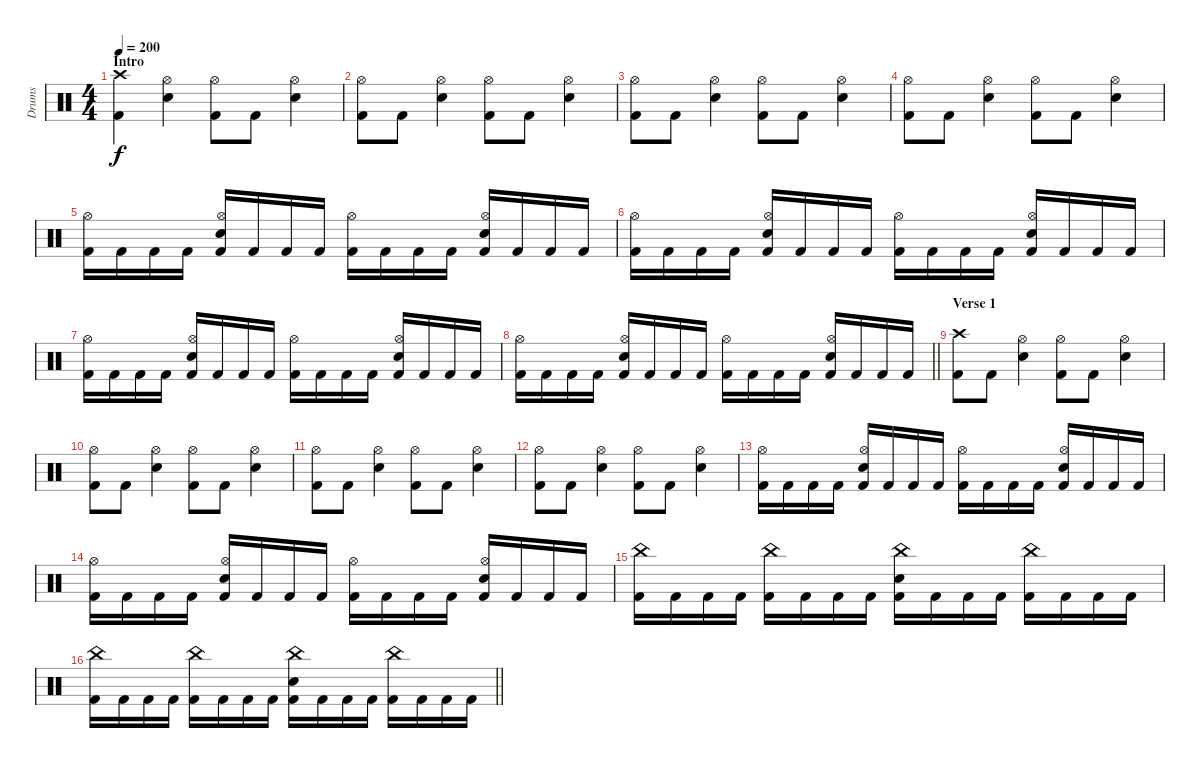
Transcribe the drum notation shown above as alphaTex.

\track ("Drums" "Drums") {instrument percussion}
\staff {score}
\articulation defaults
\ts (4 4)
\section ("" "Intro")
\tempo 200
\clef neutral
\ks c
("Crash high (hit)" "Kick (hit) 2").4{dy f} ("Hi-Hat (open)" "Electric Snare (hit)").4 ("Hi-Hat (open)" "Kick (hit) 2").8 "Kick (hit) 2".8 ("Hi-Hat (open)" "Electric Snare (hit)").4 |
("Hi-Hat (open)" "Kick (hit) 2").8 "Kick (hit) 2".8 ("Hi-Hat (open)" "Electric Snare (hit)").4 ("Hi-Hat (open)" "Kick (hit) 2").8 "Kick (hit) 2".8 ("Hi-Hat (open)" "Electric Snare (hit)").4 |
("Hi-Hat (open)" "Kick (hit) 2").8 "Kick (hit) 2".8 ("Hi-Hat (open)" "Electric Snare (hit)").4 ("Hi-Hat (open)" "Kick (hit) 2").8 "Kick (hit) 2".8 ("Hi-Hat (open)" "Electric Snare (hit)").4 |
("Hi-Hat (open)" "Kick (hit) 2").8 "Kick (hit) 2".8 ("Hi-Hat (open)" "Electric Snare (hit)").4 ("Hi-Hat (open)" "Kick (hit) 2").8 "Kick (hit) 2".8 ("Hi-Hat (open)" "Electric Snare (hit)").4 |
("Hi-Hat (open)" "Kick (hit) 2").16 "Kick (hit) 2".16 "Kick (hit) 2".16 "Kick (hit) 2".16 ("Hi-Hat (open)" "Electric Snare (hit)" "Kick (hit) 2").16 "Kick (hit) 2".16 "Kick (hit) 2".16 "Kick (hit) 2".16 ("Hi-Hat (open)" "Kick (hit) 2").16 "Kick (hit) 2".16 "Kick (hit) 2".16 "Kick (hit) 2".16 ("Hi-Hat (open)" "Electric Snare (hit)" "Kick (hit) 2").16 "Kick (hit) 2".16 "Kick (hit) 2".16 "Kick (hit) 2".16 |
("Hi-Hat (open)" "Kick (hit) 2").16 "Kick (hit) 2".16 "Kick (hit) 2".16 "Kick (hit) 2".16 ("Hi-Hat (open)" "Electric Snare (hit)" "Kick (hit) 2").16 "Kick (hit) 2".16 "Kick (hit) 2".16 "Kick (hit) 2".16 ("Hi-Hat (open)" "Kick (hit) 2").16 "Kick (hit) 2".16 "Kick (hit) 2".16 "Kick (hit) 2".16 ("Hi-Hat (open)" "Electric Snare (hit)" "Kick (hit) 2").16 "Kick (hit) 2".16 "Kick (hit) 2".16 "Kick (hit) 2".16 |
("Hi-Hat (open)" "Kick (hit) 2").16 "Kick (hit) 2".16 "Kick (hit) 2".16 "Kick (hit) 2".16 ("Hi-Hat (open)" "Electric Snare (hit)" "Kick (hit) 2").16 "Kick (hit) 2".16 "Kick (hit) 2".16 "Kick (hit) 2".16 ("Hi-Hat (open)" "Kick (hit) 2").16 "Kick (hit) 2".16 "Kick (hit) 2".16 "Kick (hit) 2".16 ("Hi-Hat (open)" "Electric Snare (hit)" "Kick (hit) 2").16 "Kick (hit) 2".16 "Kick (hit) 2".16 "Kick (hit) 2".16 |
\barLineRight lightlight
("Hi-Hat (open)" "Kick (hit) 2").16 "Kick (hit) 2".16 "Kick (hit) 2".16 "Kick (hit) 2".16 ("Hi-Hat (open)" "Electric Snare (hit)" "Kick (hit) 2").16 "Kick (hit) 2".16 "Kick (hit) 2".16 "Kick (hit) 2".16 ("Hi-Hat (open)" "Kick (hit) 2").16 "Kick (hit) 2".16 "Kick (hit) 2".16 "Kick (hit) 2".16 ("Hi-Hat (open)" "Electric Snare (hit)" "Kick (hit) 2").16 "Kick (hit) 2".16 "Kick (hit) 2".16 "Kick (hit) 2".16 |
\section ("" "Verse 1")
("Crash high (hit)" "Kick (hit) 2").8 "Kick (hit) 2".8 ("Hi-Hat (open)" "Electric Snare (hit)").4 ("Hi-Hat (open)" "Kick (hit) 2").8 "Kick (hit) 2".8 ("Hi-Hat (open)" "Electric Snare (hit)").4 |
("Hi-Hat (open)" "Kick (hit) 2").8 "Kick (hit) 2".8 ("Hi-Hat (open)" "Electric Snare (hit)").4 ("Hi-Hat (open)" "Kick (hit) 2").8 "Kick (hit) 2".8 ("Hi-Hat (open)" "Electric Snare (hit)").4 |
("Hi-Hat (open)" "Kick (hit) 2").8 "Kick (hit) 2".8 ("Hi-Hat (open)" "Electric Snare (hit)").4 ("Hi-Hat (open)" "Kick (hit) 2").8 "Kick (hit) 2".8 ("Hi-Hat (open)" "Electric Snare (hit)").4 |
("Hi-Hat (open)" "Kick (hit) 2").8 "Kick (hit) 2".8 ("Hi-Hat (open)" "Electric Snare (hit)").4 ("Hi-Hat (open)" "Kick (hit) 2").8 "Kick (hit) 2".8 ("Hi-Hat (open)" "Electric Snare (hit)").4 |
("Hi-Hat (open)" "Kick (hit) 2").16 "Kick (hit) 2".16 "Kick (hit) 2".16 "Kick (hit) 2".16 ("Hi-Hat (open)" "Electric Snare (hit)" "Kick (hit) 2").16 "Kick (hit) 2".16 "Kick (hit) 2".16 "Kick (hit) 2".16 ("Hi-Hat (open)" "Kick (hit) 2").16 "Kick (hit) 2".16 "Kick (hit) 2".16 "Kick (hit) 2".16 ("Hi-Hat (open)" "Electric Snare (hit)" "Kick (hit) 2").16 "Kick (hit) 2".16 "Kick (hit) 2".16 "Kick (hit) 2".16 |
("Hi-Hat (open)" "Kick (hit) 2").16 "Kick (hit) 2".16 "Kick (hit) 2".16 "Kick (hit) 2".16 ("Hi-Hat (open)" "Electric Snare (hit)" "Kick (hit) 2").16 "Kick (hit) 2".16 "Kick (hit) 2".16 "Kick (hit) 2".16 ("Hi-Hat (open)" "Kick (hit) 2").16 "Kick (hit) 2".16 "Kick (hit) 2".16 "Kick (hit) 2".16 ("Hi-Hat (open)" "Electric Snare (hit)" "Kick (hit) 2").16 "Kick (hit) 2".16 "Kick (hit) 2".16 "Kick (hit) 2".16 |
("China (hit)" "Kick (hit) 2").16 "Kick (hit) 2".16 "Kick (hit) 2".16 "Kick (hit) 2".16 ("China (hit)" "Kick (hit) 2").16 "Kick (hit) 2".16 "Kick (hit) 2".16 "Kick (hit) 2".16 ("China (hit)" "Electric Snare (hit)" "Kick (hit) 2").16 "Kick (hit) 2".16 "Kick (hit) 2".16 "Kick (hit) 2".16 ("China (hit)" "Kick (hit) 2").16 "Kick (hit) 2".16 "Kick (hit) 2".16 "Kick (hit) 2".16 |
\barLineRight lightlight
("China (hit)" "Kick (hit) 2").16 "Kick (hit) 2".16 "Kick (hit) 2".16 "Kick (hit) 2".16 ("China (hit)" "Kick (hit) 2").16 "Kick (hit) 2".16 "Kick (hit) 2".16 "Kick (hit) 2".16 ("China (hit)" "Electric Snare (hit)" "Kick (hit) 2").16 "Kick (hit) 2".16 "Kick (hit) 2".16 "Kick (hit) 2".16 ("China (hit)" "Kick (hit) 2").16 "Kick (hit) 2".16 "Kick (hit) 2".16 "Kick (hit) 2".16
